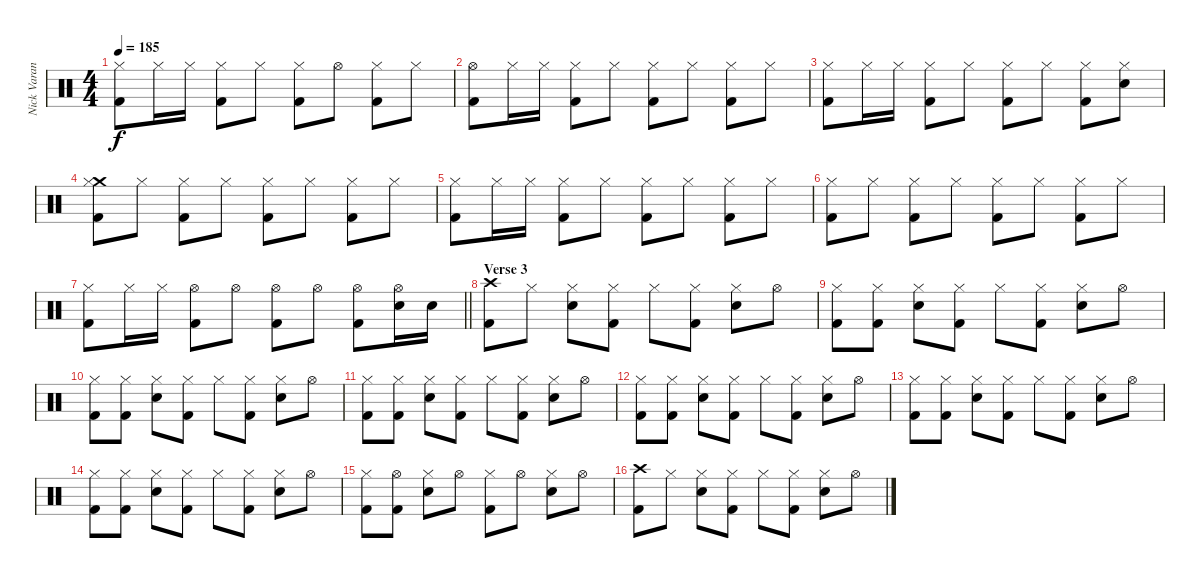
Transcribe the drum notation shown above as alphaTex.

\track ("Nick Varano (Drums)" "Nick Varan") {instrument percussion}
\staff {score}
\articulation defaults
\ts (4 4)
\tempo 185
\clef neutral
\ks c
("Hi-Hat (closed)" "Kick (hit) 2").8{dy f} "Hi-Hat (closed)".16 "Hi-Hat (closed)".16 ("Hi-Hat (closed)" "Kick (hit) 2").8 "Hi-Hat (closed)".8 ("Hi-Hat (closed)" "Kick (hit) 2").8 "Hi-Hat (open)".8 ("Hi-Hat (closed)" "Kick (hit) 2").8 "Hi-Hat (closed)".8 |
("Hi-Hat (open)" "Kick (hit) 2").8 "Hi-Hat (closed)".16 "Hi-Hat (closed)".16 ("Hi-Hat (closed)" "Kick (hit) 2").8 "Hi-Hat (closed)".8 ("Hi-Hat (closed)" "Kick (hit) 2").8 "Hi-Hat (closed)".8 ("Hi-Hat (closed)" "Kick (hit) 2").8 "Hi-Hat (closed)".8 |
("Hi-Hat (closed)" "Kick (hit) 2").8 "Hi-Hat (closed)".16 "Hi-Hat (closed)".16 ("Hi-Hat (closed)" "Kick (hit) 2").8 "Hi-Hat (closed)".8 ("Hi-Hat (closed)" "Kick (hit) 2").8 "Hi-Hat (closed)".8 ("Hi-Hat (closed)" "Kick (hit) 2").8 ("Hi-Hat (closed)" "Electric Snare (hit)").8 |
("Crash medium (hit)" "Hi-Hat (closed)" "Kick (hit) 2").8 "Hi-Hat (closed)".8 ("Hi-Hat (closed)" "Kick (hit) 2").8 "Hi-Hat (closed)".8 ("Hi-Hat (closed)" "Kick (hit) 2").8 "Hi-Hat (closed)".8 ("Hi-Hat (closed)" "Kick (hit) 2").8 "Hi-Hat (closed)".8 |
("Hi-Hat (closed)" "Kick (hit) 2").8 "Hi-Hat (closed)".16 "Hi-Hat (closed)".16 ("Hi-Hat (closed)" "Kick (hit) 2").8 "Hi-Hat (closed)".8 ("Hi-Hat (closed)" "Kick (hit) 2").8 "Hi-Hat (closed)".8 ("Hi-Hat (closed)" "Kick (hit) 2").8 "Hi-Hat (closed)".8 |
("Hi-Hat (closed)" "Kick (hit) 2").8 "Hi-Hat (closed)".8 ("Hi-Hat (closed)" "Kick (hit) 2").8 "Hi-Hat (closed)".8 ("Hi-Hat (closed)" "Kick (hit) 2").8 "Hi-Hat (closed)".8 ("Hi-Hat (closed)" "Kick (hit) 2").8 "Hi-Hat (closed)".8 |
\barLineRight lightlight
("Hi-Hat (closed)" "Kick (hit) 2").8 "Hi-Hat (closed)".16 "Hi-Hat (closed)".16 ("Hi-Hat (open)" "Kick (hit) 2").8 "Hi-Hat (open)".8 ("Hi-Hat (open)" "Kick (hit) 2").8 "Hi-Hat (open)".8 ("Hi-Hat (open)" "Kick (hit) 2").8 ("Hi-Hat (open)" "Electric Snare (hit)").16 "Electric Snare (hit)".16 |
\section ("" "Verse 3")
("Crash high (hit)" "Kick (hit) 2").8 "Hi-Hat (closed)".8 ("Hi-Hat (closed)" "Electric Snare (hit)").8 ("Hi-Hat (closed)" "Kick (hit) 2").8 "Hi-Hat (closed)".8 ("Hi-Hat (closed)" "Kick (hit) 2").8 ("Hi-Hat (closed)" "Electric Snare (hit)").8 "Hi-Hat (open)".8 |
("Hi-Hat (closed)" "Kick (hit) 2").8 ("Hi-Hat (closed)" "Kick (hit) 2").8 ("Hi-Hat (closed)" "Electric Snare (hit)").8 ("Hi-Hat (closed)" "Kick (hit) 2").8 "Hi-Hat (closed)".8 ("Hi-Hat (closed)" "Kick (hit) 2").8 ("Hi-Hat (closed)" "Electric Snare (hit)").8 "Hi-Hat (open)".8 |
("Hi-Hat (closed)" "Kick (hit) 2").8 ("Hi-Hat (closed)" "Kick (hit) 2").8 ("Hi-Hat (closed)" "Electric Snare (hit)").8 ("Hi-Hat (closed)" "Kick (hit) 2").8 "Hi-Hat (closed)".8 ("Hi-Hat (closed)" "Kick (hit) 2").8 ("Hi-Hat (closed)" "Electric Snare (hit)").8 "Hi-Hat (open)".8 |
("Hi-Hat (closed)" "Kick (hit) 2").8 ("Hi-Hat (closed)" "Kick (hit) 2").8 ("Hi-Hat (closed)" "Electric Snare (hit)").8 ("Hi-Hat (closed)" "Kick (hit) 2").8 "Hi-Hat (closed)".8 ("Hi-Hat (closed)" "Kick (hit) 2").8 ("Hi-Hat (closed)" "Electric Snare (hit)").8 "Hi-Hat (open)".8 |
("Hi-Hat (closed)" "Kick (hit) 2").8 ("Hi-Hat (closed)" "Kick (hit) 2").8 ("Hi-Hat (closed)" "Electric Snare (hit)").8 ("Hi-Hat (closed)" "Kick (hit) 2").8 "Hi-Hat (closed)".8 ("Hi-Hat (closed)" "Kick (hit) 2").8 ("Hi-Hat (closed)" "Electric Snare (hit)").8 "Hi-Hat (open)".8 |
("Hi-Hat (closed)" "Kick (hit) 2").8 ("Hi-Hat (closed)" "Kick (hit) 2").8 ("Hi-Hat (closed)" "Electric Snare (hit)").8 ("Hi-Hat (closed)" "Kick (hit) 2").8 "Hi-Hat (closed)".8 ("Hi-Hat (closed)" "Kick (hit) 2").8 ("Hi-Hat (closed)" "Electric Snare (hit)").8 "Hi-Hat (open)".8 |
("Hi-Hat (closed)" "Kick (hit) 2").8 ("Hi-Hat (closed)" "Kick (hit) 2").8 ("Hi-Hat (closed)" "Electric Snare (hit)").8 ("Hi-Hat (closed)" "Kick (hit) 2").8 "Hi-Hat (closed)".8 ("Hi-Hat (closed)" "Kick (hit) 2").8 ("Hi-Hat (closed)" "Electric Snare (hit)").8 "Hi-Hat (open)".8 |
("Hi-Hat (closed)" "Kick (hit) 2").8 ("Hi-Hat (open)" "Kick (hit) 2").8 ("Hi-Hat (closed)" "Electric Snare (hit)").8 "Hi-Hat (open)".8 ("Hi-Hat (closed)" "Kick (hit) 2").8 "Hi-Hat (open)".8 ("Hi-Hat (closed)" "Electric Snare (hit)").8 "Hi-Hat (open)".8 |
("Crash high (hit)" "Kick (hit) 2").8 "Hi-Hat (closed)".8 ("Hi-Hat (closed)" "Electric Snare (hit)").8 ("Hi-Hat (closed)" "Kick (hit) 2").8 "Hi-Hat (closed)".8 ("Hi-Hat (closed)" "Kick (hit) 2").8 ("Hi-Hat (closed)" "Electric Snare (hit)").8 "Hi-Hat (open)".8
